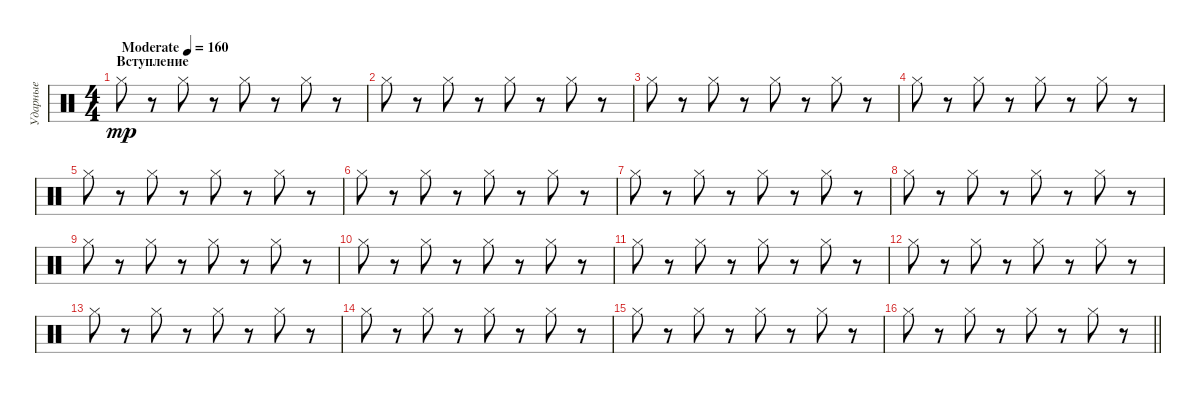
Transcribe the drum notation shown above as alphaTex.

\track ("Ударные" "Ударные") {instrument percussion}
\staff {score}
\articulation defaults
\ts (4 4)
\section ("" "Вступление")
\tempo (160 "Moderate")
\clef neutral
\ks c "Hi-Hat (closed)".8{dy mp}
r.8 "Hi-Hat (closed)".8 r.8 "Hi-Hat (closed)".8 r.8 "Hi-Hat (closed)".8 r.8 |
"Hi-Hat (closed)".8 r.8 "Hi-Hat (closed)".8 r.8 "Hi-Hat (closed)".8 r.8 "Hi-Hat (closed)".8 r.8 |
"Hi-Hat (closed)".8 r.8 "Hi-Hat (closed)".8 r.8 "Hi-Hat (closed)".8 r.8 "Hi-Hat (closed)".8 r.8 |
"Hi-Hat (closed)".8 r.8 "Hi-Hat (closed)".8 r.8 "Hi-Hat (closed)".8 r.8 "Hi-Hat (closed)".8 r.8 |
"Hi-Hat (closed)".8 r.8 "Hi-Hat (closed)".8 r.8 "Hi-Hat (closed)".8 r.8 "Hi-Hat (closed)".8 r.8 |
"Hi-Hat (closed)".8 r.8 "Hi-Hat (closed)".8 r.8 "Hi-Hat (closed)".8 r.8 "Hi-Hat (closed)".8 r.8 |
"Hi-Hat (closed)".8 r.8 "Hi-Hat (closed)".8 r.8 "Hi-Hat (closed)".8 r.8 "Hi-Hat (closed)".8 r.8 |
"Hi-Hat (closed)".8 r.8 "Hi-Hat (closed)".8 r.8 "Hi-Hat (closed)".8 r.8 "Hi-Hat (closed)".8 r.8 |
"Hi-Hat (closed)".8 r.8 "Hi-Hat (closed)".8 r.8 "Hi-Hat (closed)".8 r.8 "Hi-Hat (closed)".8 r.8 |
"Hi-Hat (closed)".8 r.8 "Hi-Hat (closed)".8 r.8 "Hi-Hat (closed)".8 r.8 "Hi-Hat (closed)".8 r.8 |
"Hi-Hat (closed)".8 r.8 "Hi-Hat (closed)".8 r.8 "Hi-Hat (closed)".8 r.8 "Hi-Hat (closed)".8 r.8 |
"Hi-Hat (closed)".8 r.8 "Hi-Hat (closed)".8 r.8 "Hi-Hat (closed)".8 r.8 "Hi-Hat (closed)".8 r.8 |
"Hi-Hat (closed)".8 r.8 "Hi-Hat (closed)".8 r.8 "Hi-Hat (closed)".8 r.8 "Hi-Hat (closed)".8 r.8 |
"Hi-Hat (closed)".8 r.8 "Hi-Hat (closed)".8 r.8 "Hi-Hat (closed)".8 r.8 "Hi-Hat (closed)".8 r.8 |
"Hi-Hat (closed)".8 r.8 "Hi-Hat (closed)".8 r.8 "Hi-Hat (closed)".8 r.8 "Hi-Hat (closed)".8 r.8 |
\barLineRight lightlight "Hi-Hat (closed)".8
r.8 "Hi-Hat (closed)".8 r.8 "Hi-Hat (closed)".8 r.8 "Hi-Hat (closed)".8 r.8
